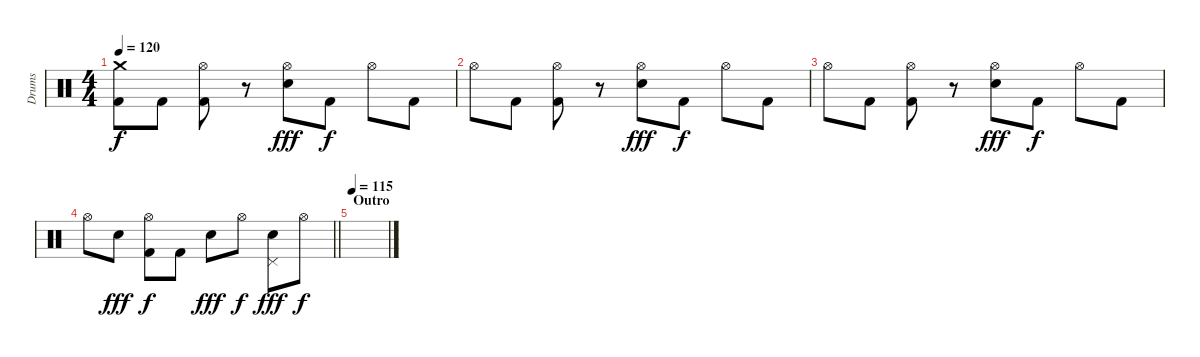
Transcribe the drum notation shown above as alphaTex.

\track ("Drums" "Drums") {instrument percussion}
\staff {score}
\articulation defaults
\ts (4 4)
\tempo 120
\clef neutral
\ks c
("Crash medium (hit)" "Kick (hit) 2").8{dy f} "Kick (hit) 2".8 ("Hi-Hat (open)" "Kick (hit) 2").8 r.8 ("Hi-Hat (open)" "Electric Snare (hit)").8{dy fff} "Kick (hit) 2".8{dy f} "Hi-Hat (open)".8 "Kick (hit) 2".8 |
"Hi-Hat (open)".8 "Kick (hit) 2".8 ("Hi-Hat (open)" "Kick (hit) 2").8 r.8 ("Hi-Hat (open)" "Electric Snare (hit)").8{dy fff} "Kick (hit) 2".8{dy f} "Hi-Hat (open)".8 "Kick (hit) 2".8 |
"Hi-Hat (open)".8 "Kick (hit) 2".8 ("Hi-Hat (open)" "Kick (hit) 2").8 r.8 ("Hi-Hat (open)" "Electric Snare (hit)").8{dy fff} "Kick (hit) 2".8{dy f} "Hi-Hat (open)".8 "Kick (hit) 2".8 |
\barLineRight lightlight "Hi-Hat (open)".8 "Electric Snare (hit)".8{dy fff}
("Hi-Hat (open)" "Kick (hit) 2").8{dy f} "Kick (hit) 2".8 "Electric Snare (hit)".8{dy fff} "Hi-Hat (open)".8{dy f} ("Pedal Hi-Hat (hit)" "Electric Snare (hit)").8{dy fff} "Hi-Hat (open)".8{dy f} |
\section ("" "Outro")
\tempo 115
